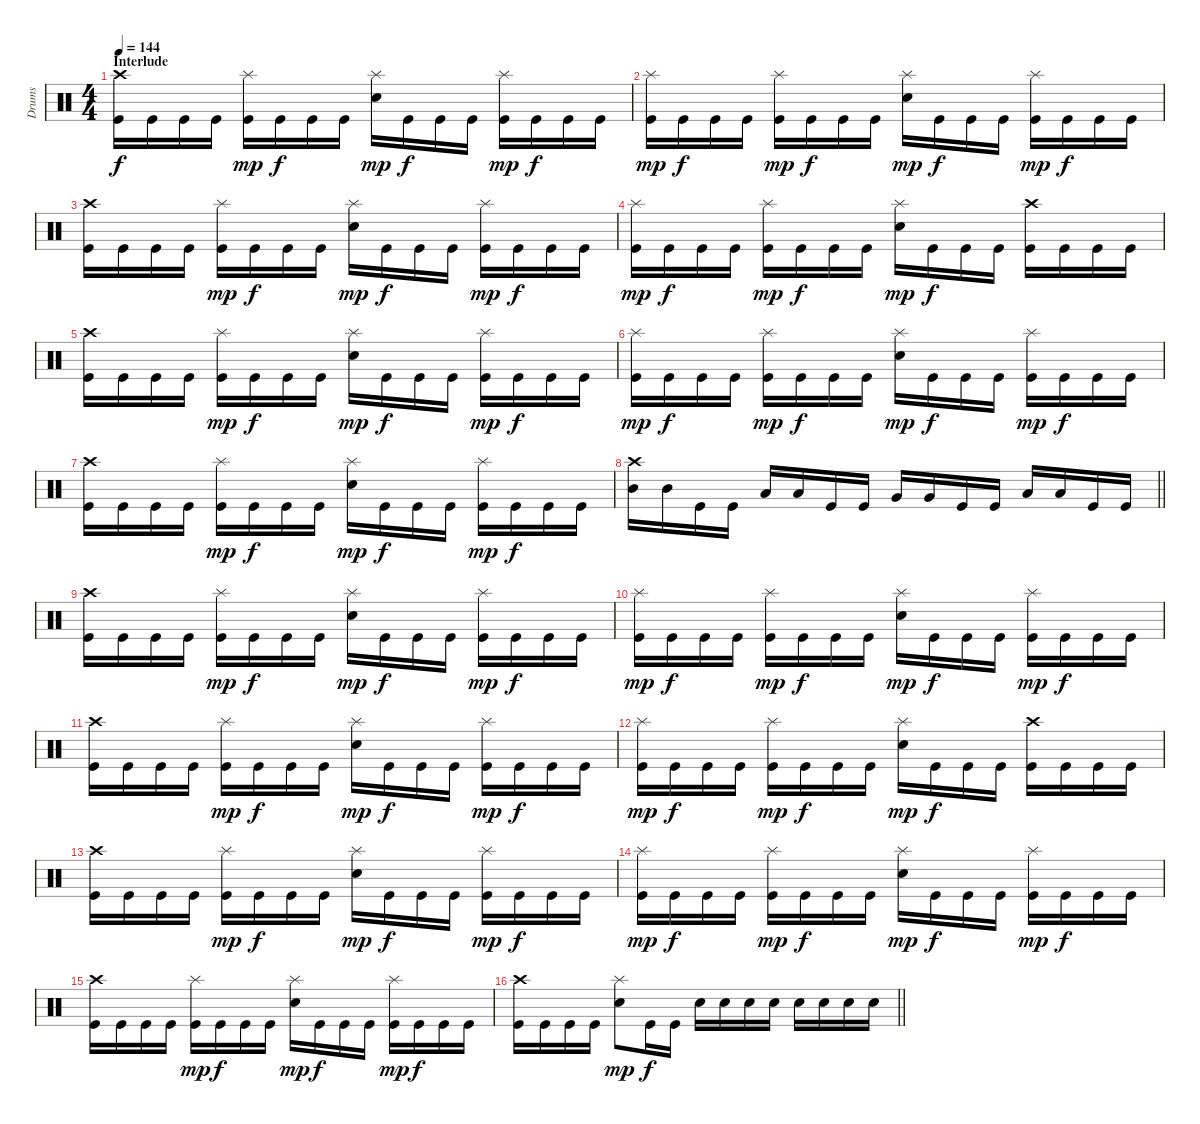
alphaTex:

\track ("Drums" "Drums") {instrument percussion}
\staff {score}
\articulation defaults
\ts (4 4)
\section ("" "Interlude")
\tempo 144
\clef neutral
\ks c
("Crash high (hit)" "Kick (hit)").16{dy f} "Kick (hit)".16 "Kick (hit)".16 "Kick (hit)".16 ("Splash (hit)" "Kick (hit)").16{dy mp} "Kick (hit)".16{dy f} "Kick (hit)".16 "Kick (hit)".16 ("Splash (hit)" "Electric Snare (hit)").16{dy mp} "Kick (hit)".16{dy f} "Kick (hit)".16 "Kick (hit)".16 ("Splash (hit)" "Kick (hit)").16{dy mp} "Kick (hit)".16{dy f} "Kick (hit)".16 "Kick (hit)".16 |
("Splash (hit)" "Kick (hit)").16{dy mp} "Kick (hit)".16{dy f} "Kick (hit)".16 "Kick (hit)".16 ("Splash (hit)" "Kick (hit)").16{dy mp} "Kick (hit)".16{dy f} "Kick (hit)".16 "Kick (hit)".16 ("Splash (hit)" "Electric Snare (hit)").16{dy mp} "Kick (hit)".16{dy f} "Kick (hit)".16 "Kick (hit)".16 ("Splash (hit)" "Kick (hit)").16{dy mp} "Kick (hit)".16{dy f} "Kick (hit)".16 "Kick (hit)".16 |
("Crash high (hit)" "Kick (hit)").16 "Kick (hit)".16 "Kick (hit)".16 "Kick (hit)".16 ("Splash (hit)" "Kick (hit)").16{dy mp} "Kick (hit)".16{dy f} "Kick (hit)".16 "Kick (hit)".16 ("Splash (hit)" "Electric Snare (hit)").16{dy mp} "Kick (hit)".16{dy f} "Kick (hit)".16 "Kick (hit)".16 ("Splash (hit)" "Kick (hit)").16{dy mp} "Kick (hit)".16{dy f} "Kick (hit)".16 "Kick (hit)".16 |
("Splash (hit)" "Kick (hit)").16{dy mp} "Kick (hit)".16{dy f} "Kick (hit)".16 "Kick (hit)".16 ("Splash (hit)" "Kick (hit)").16{dy mp} "Kick (hit)".16{dy f} "Kick (hit)".16 "Kick (hit)".16 ("Splash (hit)" "Electric Snare (hit)").16{dy mp} "Kick (hit)".16{dy f} "Kick (hit)".16 "Kick (hit)".16 ("Crash high (hit)" "Kick (hit)").16 "Kick (hit)".16 "Kick (hit)".16 "Kick (hit)".16 |
("Crash high (hit)" "Kick (hit)").16 "Kick (hit)".16 "Kick (hit)".16 "Kick (hit)".16 ("Splash (hit)" "Kick (hit)").16{dy mp} "Kick (hit)".16{dy f} "Kick (hit)".16 "Kick (hit)".16 ("Splash (hit)" "Electric Snare (hit)").16{dy mp} "Kick (hit)".16{dy f} "Kick (hit)".16 "Kick (hit)".16 ("Splash (hit)" "Kick (hit)").16{dy mp} "Kick (hit)".16{dy f} "Kick (hit)".16 "Kick (hit)".16 |
("Splash (hit)" "Kick (hit)").16{dy mp} "Kick (hit)".16{dy f} "Kick (hit)".16 "Kick (hit)".16 ("Splash (hit)" "Kick (hit)").16{dy mp} "Kick (hit)".16{dy f} "Kick (hit)".16 "Kick (hit)".16 ("Splash (hit)" "Electric Snare (hit)").16{dy mp} "Kick (hit)".16{dy f} "Kick (hit)".16 "Kick (hit)".16 ("Splash (hit)" "Kick (hit)").16{dy mp} "Kick (hit)".16{dy f} "Kick (hit)".16 "Kick (hit)".16 |
("Crash high (hit)" "Kick (hit)").16 "Kick (hit)".16 "Kick (hit)".16 "Kick (hit)".16 ("Splash (hit)" "Kick (hit)").16{dy mp} "Kick (hit)".16{dy f} "Kick (hit)".16 "Kick (hit)".16 ("Splash (hit)" "Electric Snare (hit)").16{dy mp} "Kick (hit)".16{dy f} "Kick (hit)".16 "Kick (hit)".16 ("Splash (hit)" "Kick (hit)").16{dy mp} "Kick (hit)".16{dy f} "Kick (hit)".16 "Kick (hit)".16 |
\barLineRight lightlight
("Crash high (hit)" "Mid Tom (hit)").16 "Mid Tom (hit)".16 "Kick (hit)".16 "Kick (hit)".16 "Low Tom (hit)".16 "Low Tom (hit)".16 "Kick (hit)".16 "Kick (hit)".16 "Very Low Tom (hit)".16 "Very Low Tom (hit)".16 "Kick (hit)".16 "Kick (hit)".16 "Low Floor Tom (hit)".16 "Low Floor Tom (hit)".16 "Kick (hit)".16 "Kick (hit)".16 |
\section ("" "")
("Crash high (hit)" "Kick (hit)").16 "Kick (hit)".16 "Kick (hit)".16 "Kick (hit)".16 ("Splash (hit)" "Kick (hit)").16{dy mp} "Kick (hit)".16{dy f} "Kick (hit)".16 "Kick (hit)".16 ("Splash (hit)" "Electric Snare (hit)").16{dy mp} "Kick (hit)".16{dy f} "Kick (hit)".16 "Kick (hit)".16 ("Splash (hit)" "Kick (hit)").16{dy mp} "Kick (hit)".16{dy f} "Kick (hit)".16 "Kick (hit)".16 |
("Splash (hit)" "Kick (hit)").16{dy mp} "Kick (hit)".16{dy f} "Kick (hit)".16 "Kick (hit)".16 ("Splash (hit)" "Kick (hit)").16{dy mp} "Kick (hit)".16{dy f} "Kick (hit)".16 "Kick (hit)".16 ("Splash (hit)" "Electric Snare (hit)").16{dy mp} "Kick (hit)".16{dy f} "Kick (hit)".16 "Kick (hit)".16 ("Splash (hit)" "Kick (hit)").16{dy mp} "Kick (hit)".16{dy f} "Kick (hit)".16 "Kick (hit)".16 |
("Crash high (hit)" "Kick (hit)").16 "Kick (hit)".16 "Kick (hit)".16 "Kick (hit)".16 ("Splash (hit)" "Kick (hit)").16{dy mp} "Kick (hit)".16{dy f} "Kick (hit)".16 "Kick (hit)".16 ("Splash (hit)" "Electric Snare (hit)").16{dy mp} "Kick (hit)".16{dy f} "Kick (hit)".16 "Kick (hit)".16 ("Splash (hit)" "Kick (hit)").16{dy mp} "Kick (hit)".16{dy f} "Kick (hit)".16 "Kick (hit)".16 |
("Splash (hit)" "Kick (hit)").16{dy mp} "Kick (hit)".16{dy f} "Kick (hit)".16 "Kick (hit)".16 ("Splash (hit)" "Kick (hit)").16{dy mp} "Kick (hit)".16{dy f} "Kick (hit)".16 "Kick (hit)".16 ("Splash (hit)" "Electric Snare (hit)").16{dy mp} "Kick (hit)".16{dy f} "Kick (hit)".16 "Kick (hit)".16 ("Crash high (hit)" "Kick (hit)").16 "Kick (hit)".16 "Kick (hit)".16 "Kick (hit)".16 |
("Crash high (hit)" "Kick (hit)").16 "Kick (hit)".16 "Kick (hit)".16 "Kick (hit)".16 ("Splash (hit)" "Kick (hit)").16{dy mp} "Kick (hit)".16{dy f} "Kick (hit)".16 "Kick (hit)".16 ("Splash (hit)" "Electric Snare (hit)").16{dy mp} "Kick (hit)".16{dy f} "Kick (hit)".16 "Kick (hit)".16 ("Splash (hit)" "Kick (hit)").16{dy mp} "Kick (hit)".16{dy f} "Kick (hit)".16 "Kick (hit)".16 |
("Splash (hit)" "Kick (hit)").16{dy mp} "Kick (hit)".16{dy f} "Kick (hit)".16 "Kick (hit)".16 ("Splash (hit)" "Kick (hit)").16{dy mp} "Kick (hit)".16{dy f} "Kick (hit)".16 "Kick (hit)".16 ("Splash (hit)" "Electric Snare (hit)").16{dy mp} "Kick (hit)".16{dy f} "Kick (hit)".16 "Kick (hit)".16 ("Splash (hit)" "Kick (hit)").16{dy mp} "Kick (hit)".16{dy f} "Kick (hit)".16 "Kick (hit)".16 |
("Crash high (hit)" "Kick (hit)").16 "Kick (hit)".16 "Kick (hit)".16 "Kick (hit)".16 ("Splash (hit)" "Kick (hit)").16{dy mp} "Kick (hit)".16{dy f} "Kick (hit)".16 "Kick (hit)".16 ("Splash (hit)" "Electric Snare (hit)").16{dy mp} "Kick (hit)".16{dy f} "Kick (hit)".16 "Kick (hit)".16 ("Splash (hit)" "Kick (hit)").16{dy mp} "Kick (hit)".16{dy f} "Kick (hit)".16 "Kick (hit)".16 |
\barLineRight lightlight
("Crash high (hit)" "Kick (hit)").16 "Kick (hit)".16 "Kick (hit)".16 "Kick (hit)".16 ("Splash (hit)" "Electric Snare (hit)").8{dy mp} "Kick (hit)".16{dy f} "Kick (hit)".16 "Electric Snare (hit)".16 "Electric Snare (hit)".16 "Electric Snare (hit)".16 "Electric Snare (hit)".16 "Electric Snare (hit)".16 "Electric Snare (hit)".16 "Electric Snare (hit)".16 "Electric Snare (hit)".16
